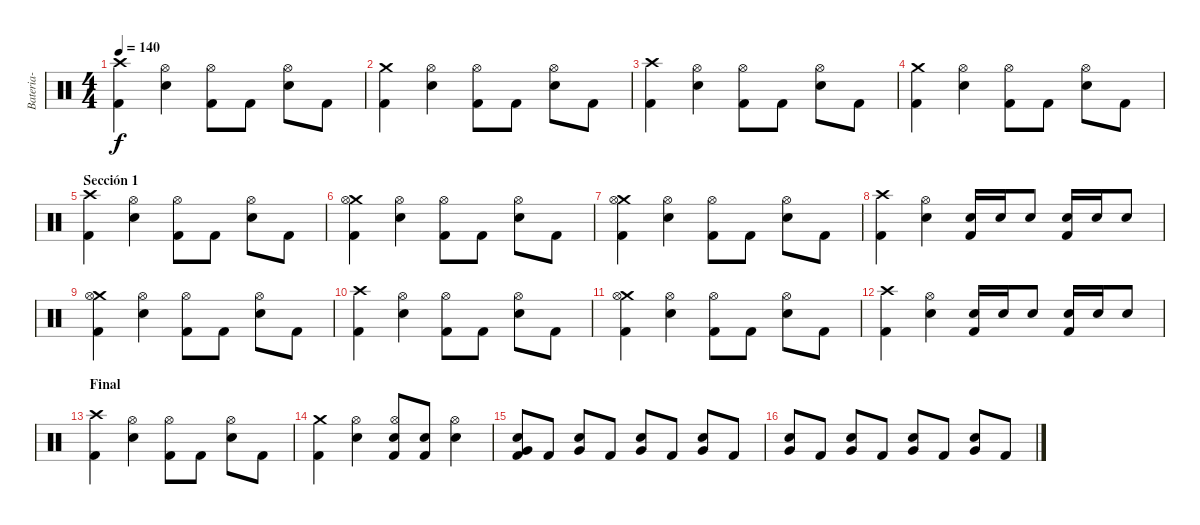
\track ("Bateria-" "Bateria-") {instrument percussion}
\staff {score}
\articulation defaults
\ts (4 4)
\tempo 140
\clef neutral
\ks c
("Crash high (hit)" "Kick (hit) 2").4{dy f} ("Hi-Hat (open)" "Electric Snare (hit)").4 ("Hi-Hat (open)" "Kick (hit) 2").8 "Kick (hit) 2".8 ("Hi-Hat (open)" "Electric Snare (hit)").8 "Kick (hit) 2".8 |
("Crash medium (hit)" "Kick (hit) 2").4 ("Hi-Hat (open)" "Electric Snare (hit)").4 ("Hi-Hat (open)" "Kick (hit) 2").8 "Kick (hit) 2".8 ("Hi-Hat (open)" "Electric Snare (hit)").8 "Kick (hit) 2".8 |
("Crash high (hit)" "Kick (hit) 2").4 ("Hi-Hat (open)" "Electric Snare (hit)").4 ("Hi-Hat (open)" "Kick (hit) 2").8 "Kick (hit) 2".8 ("Hi-Hat (open)" "Electric Snare (hit)").8 "Kick (hit) 2".8 |
("Crash medium (hit)" "Kick (hit) 2").4 ("Hi-Hat (open)" "Electric Snare (hit)").4 ("Hi-Hat (open)" "Kick (hit) 2").8 "Kick (hit) 2".8 ("Hi-Hat (open)" "Electric Snare (hit)").8 "Kick (hit) 2".8 |
\section ("" "Sección 1")
("Crash high (hit)" "Kick (hit) 2").4 ("Hi-Hat (open)" "Electric Snare (hit)").4 ("Hi-Hat (open)" "Kick (hit) 2").8 "Kick (hit) 2".8 ("Hi-Hat (open)" "Electric Snare (hit)").8 "Kick (hit) 2".8 |
("Crash medium (hit)" "Hi-Hat (open)" "Kick (hit) 2").4 ("Hi-Hat (open)" "Electric Snare (hit)").4 ("Hi-Hat (open)" "Kick (hit) 2").8 "Kick (hit) 2".8 ("Hi-Hat (open)" "Electric Snare (hit)").8 "Kick (hit) 2".8 |
("Crash medium (hit)" "Hi-Hat (open)" "Kick (hit) 2").4 ("Hi-Hat (open)" "Electric Snare (hit)").4 ("Hi-Hat (open)" "Kick (hit) 2").8 "Kick (hit) 2".8 ("Hi-Hat (open)" "Electric Snare (hit)").8 "Kick (hit) 2".8 |
("Crash high (hit)" "Kick (hit) 2").4 ("Hi-Hat (open)" "Electric Snare (hit)").4 ("Electric Snare (hit)" "Kick (hit) 2").16 "Electric Snare (hit)".16 "Electric Snare (hit)".8 ("Electric Snare (hit)" "Kick (hit) 2").16 "Electric Snare (hit)".16 "Electric Snare (hit)".8 |
("Crash medium (hit)" "Hi-Hat (open)" "Kick (hit) 2").4 ("Hi-Hat (open)" "Electric Snare (hit)").4 ("Hi-Hat (open)" "Kick (hit) 2").8 "Kick (hit) 2".8 ("Hi-Hat (open)" "Electric Snare (hit)").8 "Kick (hit) 2".8 |
("Crash high (hit)" "Kick (hit) 2").4 ("Hi-Hat (open)" "Electric Snare (hit)").4 ("Hi-Hat (open)" "Kick (hit) 2").8 "Kick (hit) 2".8 ("Hi-Hat (open)" "Electric Snare (hit)").8 "Kick (hit) 2".8 |
("Crash medium (hit)" "Hi-Hat (open)" "Kick (hit) 2").4 ("Hi-Hat (open)" "Electric Snare (hit)").4 ("Hi-Hat (open)" "Kick (hit) 2").8 "Kick (hit) 2".8 ("Hi-Hat (open)" "Electric Snare (hit)").8 "Kick (hit) 2".8 |
("Crash high (hit)" "Kick (hit) 2").4 ("Hi-Hat (open)" "Electric Snare (hit)").4 ("Electric Snare (hit)" "Kick (hit) 2").16 "Electric Snare (hit)".16 "Electric Snare (hit)".8 ("Electric Snare (hit)" "Kick (hit) 2").16 "Electric Snare (hit)".16 "Electric Snare (hit)".8 |
\section ("" "Final")
("Crash high (hit)" "Kick (hit) 2").4 ("Hi-Hat (open)" "Electric Snare (hit)").4 ("Hi-Hat (open)" "Kick (hit) 2").8 "Kick (hit) 2".8 ("Hi-Hat (open)" "Electric Snare (hit)").8 "Kick (hit) 2".8 |
("Crash medium (hit)" "Kick (hit) 2").4 ("Hi-Hat (open)" "Snare (hit) 2").4 ("Hi-Hat (open)" "Kick (hit) 2" "Snare (hit) 2").8 ("Kick (hit) 2" "Snare (hit) 2").8 ("Hi-Hat (open)" "Snare (hit) 2").4 |
("Very Low Tom (hit)" "Kick (hit) 2" "Electric Snare (hit)").8 "Kick (hit) 2".8 ("Very Low Tom (hit)" "Electric Snare (hit)").8 "Kick (hit) 2".8 ("Very Low Tom (hit)" "Electric Snare (hit)").8 "Kick (hit) 2".8 ("Very Low Tom (hit)" "Electric Snare (hit)").8 "Kick (hit) 2".8 |
("Very Low Tom (hit)" "Electric Snare (hit)").8 "Kick (hit) 2".8 ("Very Low Tom (hit)" "Electric Snare (hit)").8 "Kick (hit) 2".8 ("Very Low Tom (hit)" "Electric Snare (hit)").8 "Kick (hit) 2".8 ("Very Low Tom (hit)" "Electric Snare (hit)").8 "Kick (hit) 2".8
